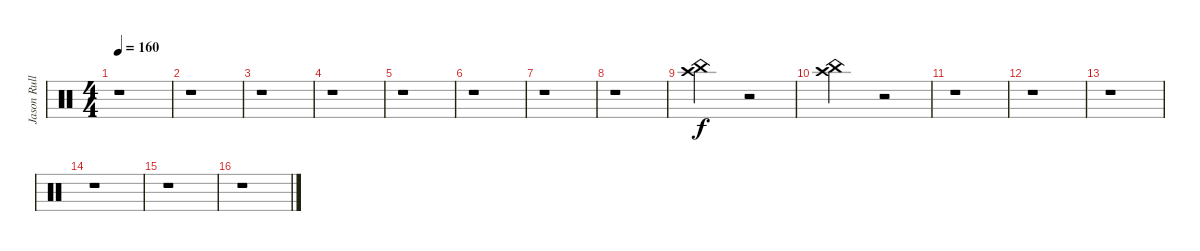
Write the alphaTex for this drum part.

\track ("Jason Rullo" "Jason Rull") {instrument percussion}
\staff {score}
\articulation defaults
\ts (4 4)
\tempo 160
\clef neutral
\ks c
r.1{dy f} |
r.1 |
r.1 |
r.1 |
r.1 |
r.1 |
r.1 |
r.1 |
("China (hit)" "Crash high (hit)").2 r.2 |
("Crash high (hit)" "China (hit)").2 r.2 |
r.1 |
r.1 |
r.1 |
r.1 |
r.1 |
r.1
